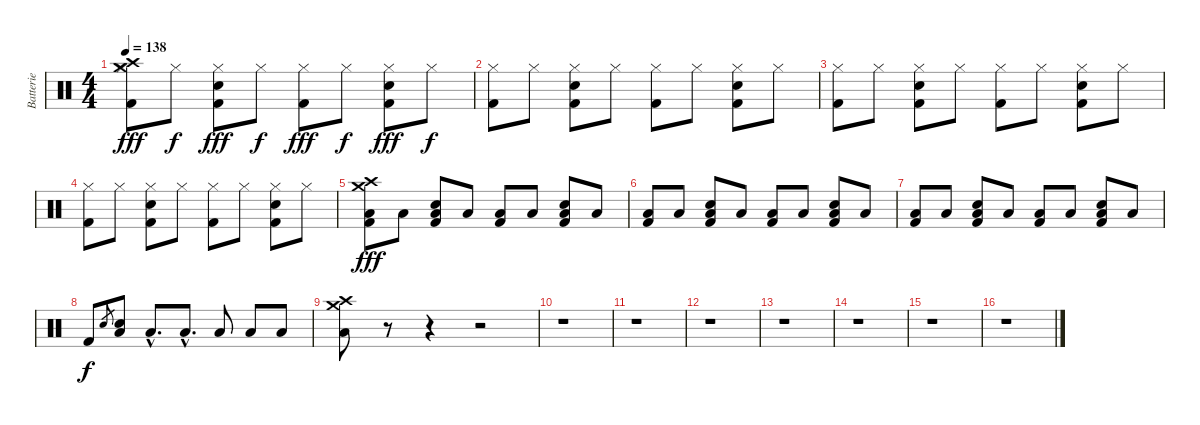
\track ("Batterie" "Batterie") {instrument percussion}
\staff {score}
\articulation defaults
\ts (4 4)
\tempo 138
\clef neutral
\ks c
("Crash high (hit)" "Crash medium (hit)" "Hi-Hat (closed)" "Kick (hit) 2").8{dy fff} "Hi-Hat (closed)".8{dy f} ("Hi-Hat (closed)" "Electric Snare (hit)" "Kick (hit) 2").8{dy fff} "Hi-Hat (closed)".8{dy f} ("Hi-Hat (closed)" "Kick (hit) 2").8{dy fff} "Hi-Hat (closed)".8{dy f} ("Hi-Hat (closed)" "Electric Snare (hit)" "Kick (hit) 2").8{dy fff} "Hi-Hat (closed)".8{dy f} |
("Hi-Hat (closed)" "Kick (hit) 2").8 "Hi-Hat (closed)".8 ("Hi-Hat (closed)" "Electric Snare (hit)" "Kick (hit) 2").8 "Hi-Hat (closed)".8 ("Hi-Hat (closed)" "Kick (hit) 2").8 "Hi-Hat (closed)".8 ("Hi-Hat (closed)" "Electric Snare (hit)" "Kick (hit) 2").8 "Hi-Hat (closed)".8 |
("Hi-Hat (closed)" "Kick (hit) 2").8 "Hi-Hat (closed)".8 ("Hi-Hat (closed)" "Electric Snare (hit)" "Kick (hit) 2").8 "Hi-Hat (closed)".8 ("Hi-Hat (closed)" "Kick (hit) 2").8 "Hi-Hat (closed)".8 ("Hi-Hat (closed)" "Electric Snare (hit)" "Kick (hit) 2").8 "Hi-Hat (closed)".8 |
("Hi-Hat (closed)" "Kick (hit) 2").8 "Hi-Hat (closed)".8 ("Hi-Hat (closed)" "Electric Snare (hit)" "Kick (hit) 2").8 "Hi-Hat (closed)".8 ("Hi-Hat (closed)" "Kick (hit) 2").8 "Hi-Hat (closed)".8 ("Hi-Hat (closed)" "Electric Snare (hit)" "Kick (hit) 2").8 "Hi-Hat (closed)".8 |
("Crash high (hit)" "Crash medium (hit)" "Low Floor Tom (hit)" "Kick (hit) 2").8{dy fff} "Low Floor Tom (hit)".8 ("Low Floor Tom (hit)" "Electric Snare (hit)" "Kick (hit) 2").8 "Low Floor Tom (hit)".8 ("Low Floor Tom (hit)" "Kick (hit) 2").8 "Low Floor Tom (hit)".8 ("Low Floor Tom (hit)" "Electric Snare (hit)" "Kick (hit) 2").8 "Low Floor Tom (hit)".8 |
("Low Floor Tom (hit)" "Kick (hit) 2").8 "Low Floor Tom (hit)".8 ("Low Floor Tom (hit)" "Electric Snare (hit)" "Kick (hit) 2").8 "Low Floor Tom (hit)".8 ("Low Floor Tom (hit)" "Kick (hit) 2").8 "Low Floor Tom (hit)".8 ("Low Floor Tom (hit)" "Electric Snare (hit)" "Kick (hit) 2").8 "Low Floor Tom (hit)".8 |
("Low Floor Tom (hit)" "Kick (hit) 2").8 "Low Floor Tom (hit)".8 ("Low Floor Tom (hit)" "Electric Snare (hit)" "Kick (hit) 2").8 "Low Floor Tom (hit)".8 ("Low Floor Tom (hit)" "Kick (hit) 2").8 "Low Floor Tom (hit)".8 ("Low Floor Tom (hit)" "Electric Snare (hit)" "Kick (hit) 2").8 "Low Floor Tom (hit)".8 |
"Kick (hit) 2".8{dy f} "Electric Snare (hit)".8{gr} ("Low Floor Tom (hit)" "Electric Snare (hit)").8 "Low Floor Tom (hit)"{hac}.8{d} "Low Floor Tom (hit)"{hac}.8{d} "Low Floor Tom (hit)".8 "Low Floor Tom (hit)".8 "Low Floor Tom (hit)".8 |
("Crash high (hit)" "Crash medium (hit)" "Low Floor Tom (hit)").8 r.8 r.4 r.2 |
r.1 |
r.1 |
r.1 |
r.1 |
r.1 |
r.1 |
r.1
